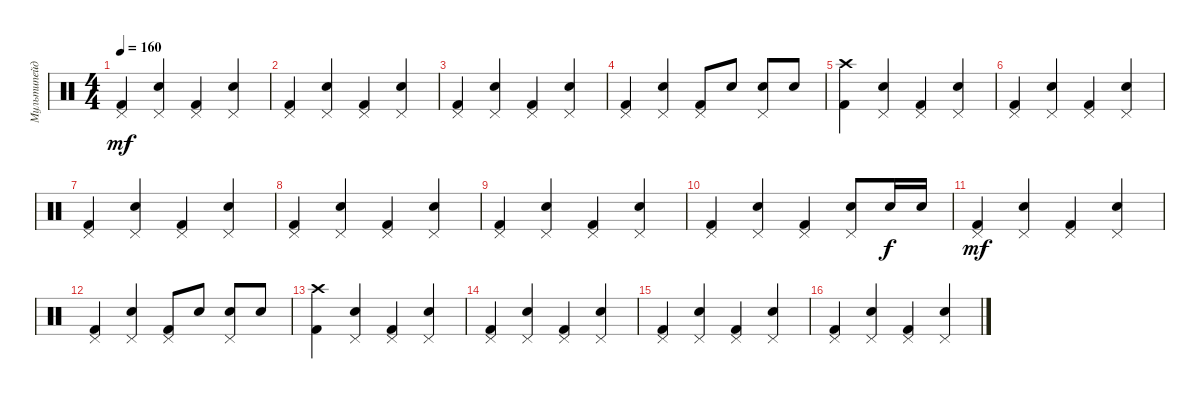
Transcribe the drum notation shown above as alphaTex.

\track ("Мультипейджер" "Мультипейд") {instrument percussion}
\staff {score}
\articulation defaults
\ts (4 4)
\tempo 160
\clef neutral
\ks c
("Pedal Hi-Hat (hit)" "Kick (hit) 2").4{dy mf} ("Pedal Hi-Hat (hit)" "Snare (hit) 2").4 ("Pedal Hi-Hat (hit)" "Kick (hit) 2").4 ("Pedal Hi-Hat (hit)" "Snare (hit) 2").4 |
("Pedal Hi-Hat (hit)" "Kick (hit) 2").4 ("Pedal Hi-Hat (hit)" "Snare (hit) 2").4 ("Pedal Hi-Hat (hit)" "Kick (hit) 2").4 ("Pedal Hi-Hat (hit)" "Snare (hit) 2").4 |
("Pedal Hi-Hat (hit)" "Kick (hit) 2").4 ("Pedal Hi-Hat (hit)" "Snare (hit) 2").4 ("Pedal Hi-Hat (hit)" "Kick (hit) 2").4 ("Pedal Hi-Hat (hit)" "Snare (hit) 2").4 |
("Pedal Hi-Hat (hit)" "Kick (hit) 2").4 ("Pedal Hi-Hat (hit)" "Snare (hit) 2").4 ("Pedal Hi-Hat (hit)" "Kick (hit) 2").8 "Electric Snare (hit)".8 ("Pedal Hi-Hat (hit)" "Electric Snare (hit)").8 "Electric Snare (hit)".8 |
("Crash high (hit)" "Kick (hit) 2").4 ("Pedal Hi-Hat (hit)" "Snare (hit) 2").4 ("Pedal Hi-Hat (hit)" "Kick (hit) 2").4 ("Pedal Hi-Hat (hit)" "Snare (hit) 2").4 |
("Pedal Hi-Hat (hit)" "Kick (hit) 2").4 ("Pedal Hi-Hat (hit)" "Snare (hit) 2").4 ("Pedal Hi-Hat (hit)" "Kick (hit) 2").4 ("Pedal Hi-Hat (hit)" "Snare (hit) 2").4 |
("Pedal Hi-Hat (hit)" "Kick (hit) 2").4 ("Pedal Hi-Hat (hit)" "Snare (hit) 2").4 ("Pedal Hi-Hat (hit)" "Kick (hit) 2").4 ("Pedal Hi-Hat (hit)" "Snare (hit) 2").4 |
("Pedal Hi-Hat (hit)" "Kick (hit) 2").4 ("Pedal Hi-Hat (hit)" "Snare (hit) 2").4 ("Pedal Hi-Hat (hit)" "Kick (hit) 2").4 ("Pedal Hi-Hat (hit)" "Snare (hit) 2").4 |
("Pedal Hi-Hat (hit)" "Kick (hit) 2").4 ("Pedal Hi-Hat (hit)" "Snare (hit) 2").4 ("Pedal Hi-Hat (hit)" "Kick (hit) 2").4 ("Pedal Hi-Hat (hit)" "Snare (hit) 2").4 |
("Pedal Hi-Hat (hit)" "Kick (hit) 2").4 ("Pedal Hi-Hat (hit)" "Snare (hit) 2").4 ("Pedal Hi-Hat (hit)" "Kick (hit) 2").4 ("Pedal Hi-Hat (hit)" "Snare (hit) 2").8 "Electric Snare (hit)".16{dy f} "Electric Snare (hit)".16 |
("Pedal Hi-Hat (hit)" "Kick (hit) 2").4{dy mf} ("Pedal Hi-Hat (hit)" "Snare (hit) 2").4 ("Pedal Hi-Hat (hit)" "Kick (hit) 2").4 ("Pedal Hi-Hat (hit)" "Snare (hit) 2").4 |
("Pedal Hi-Hat (hit)" "Kick (hit) 2").4 ("Pedal Hi-Hat (hit)" "Snare (hit) 2").4 ("Pedal Hi-Hat (hit)" "Kick (hit) 2").8 "Electric Snare (hit)".8 ("Pedal Hi-Hat (hit)" "Electric Snare (hit)").8 "Electric Snare (hit)".8 |
("Crash high (hit)" "Kick (hit) 2").4 ("Pedal Hi-Hat (hit)" "Snare (hit) 2").4 ("Pedal Hi-Hat (hit)" "Kick (hit) 2").4 ("Pedal Hi-Hat (hit)" "Snare (hit) 2").4 |
("Pedal Hi-Hat (hit)" "Kick (hit) 2").4 ("Pedal Hi-Hat (hit)" "Snare (hit) 2").4 ("Pedal Hi-Hat (hit)" "Kick (hit) 2").4 ("Pedal Hi-Hat (hit)" "Snare (hit) 2").4 |
("Pedal Hi-Hat (hit)" "Kick (hit) 2").4 ("Pedal Hi-Hat (hit)" "Snare (hit) 2").4 ("Pedal Hi-Hat (hit)" "Kick (hit) 2").4 ("Pedal Hi-Hat (hit)" "Snare (hit) 2").4 |
("Pedal Hi-Hat (hit)" "Kick (hit) 2").4 ("Pedal Hi-Hat (hit)" "Snare (hit) 2").4 ("Pedal Hi-Hat (hit)" "Kick (hit) 2").4 ("Pedal Hi-Hat (hit)" "Snare (hit) 2").4
